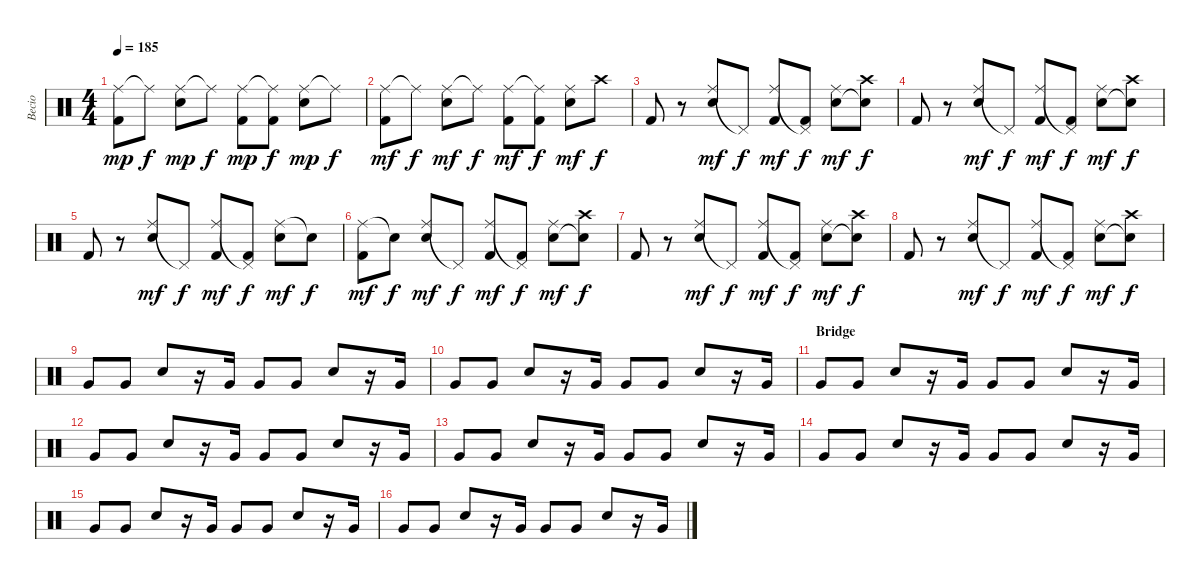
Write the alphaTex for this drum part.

\track ("Becio" "Becio") {instrument percussion}
\staff {score}
\articulation defaults
\ts (4 4)
\tempo 185
\clef neutral
\ks c
("Ride (middle)" "Kick (hit) 2").8{dy mp} "Ride (middle)"{t}.8{dy f} ("Ride (middle)" "Electric Snare (hit)").8{dy mp} "Ride (middle)"{t}.8{dy f} ("Ride (middle)" "Kick (hit) 2").8{dy mp} ("Ride (middle)"{t} "Kick (hit) 2").8{dy f} ("Ride (middle)" "Electric Snare (hit)").8{dy mp} "Ride (middle)"{t}.8{dy f} |
("Ride (middle)" "Kick (hit) 2").8{dy mf} "Ride (middle)"{t}.8{dy f} ("Ride (middle)" "Electric Snare (hit)").8{dy mf} "Ride (middle)"{t}.8{dy f} ("Ride (middle)" "Kick (hit) 2").8{dy mf} ("Ride (middle)"{t} "Kick (hit) 2").8{dy f} ("Ride (middle)" "Electric Snare (hit)").8{dy mf} "Crash high (hit)".8{dy f} |
"Kick (hit) 2".8 r.8 ("Ride (middle)" "Electric Snare (hit)").8{dy mf} "Pedal Hi-Hat (hit)"{t}.8{dy f} ("Ride (middle)" "Kick (hit) 2").8{dy mf} ("Pedal Hi-Hat (hit)"{t} "Kick (hit) 2").8{dy f} ("Ride (middle)" "Electric Snare (hit)").8{dy mf} ("Crash high (hit)" "Snare (hit)"{t}).8{dy f} |
"Kick (hit) 2".8 r.8 ("Ride (middle)" "Electric Snare (hit)").8{dy mf} "Pedal Hi-Hat (hit)"{t}.8{dy f} ("Ride (middle)" "Kick (hit) 2").8{dy mf} ("Pedal Hi-Hat (hit)"{t} "Kick (hit) 2").8{dy f} ("Ride (middle)" "Electric Snare (hit)").8{dy mf} ("Crash high (hit)" "Snare (hit)"{t}).8{dy f} |
"Kick (hit) 2".8 r.8 ("Ride (middle)" "Electric Snare (hit)").8{dy mf} "Pedal Hi-Hat (hit)"{t}.8{dy f} ("Ride (middle)" "Kick (hit) 2").8{dy mf} ("Pedal Hi-Hat (hit)"{t} "Kick (hit) 2").8{dy f} ("Ride (middle)" "Electric Snare (hit)").8{dy mf} "Snare (hit)"{t}.8{dy f} |
("Ride (middle)" "Kick (hit) 2").8{dy mf} "Snare (hit)"{t}.8{dy f} ("Ride (middle)" "Electric Snare (hit)").8{dy mf} "Pedal Hi-Hat (hit)"{t}.8{dy f} ("Ride (middle)" "Kick (hit) 2").8{dy mf} ("Pedal Hi-Hat (hit)"{t} "Kick (hit) 2").8{dy f} ("Ride (middle)" "Electric Snare (hit)").8{dy mf} ("Crash high (hit)" "Snare (hit)"{t}).8{dy f} |
"Kick (hit) 2".8 r.8 ("Ride (middle)" "Electric Snare (hit)").8{dy mf} "Pedal Hi-Hat (hit)"{t}.8{dy f} ("Ride (middle)" "Kick (hit) 2").8{dy mf} ("Pedal Hi-Hat (hit)"{t} "Kick (hit) 2").8{dy f} ("Ride (middle)" "Electric Snare (hit)").8{dy mf} ("Crash high (hit)" "Snare (hit)"{t}).8{dy f} |
"Kick (hit) 2".8 r.8 ("Ride (middle)" "Electric Snare (hit)").8{dy mf} "Pedal Hi-Hat (hit)"{t}.8{dy f} ("Ride (middle)" "Kick (hit) 2").8{dy mf} ("Pedal Hi-Hat (hit)"{t} "Kick (hit) 2").8{dy f} ("Ride (middle)" "Electric Snare (hit)").8{dy mf} ("Crash high (hit)" "Snare (hit)"{t}).8{dy f} |
"Very Low Tom (hit)".8 "Very Low Tom (hit)".8 "Electric Snare (hit)".8 r.16 "Very Low Tom (hit)".16 "Very Low Tom (hit)".8 "Very Low Tom (hit)".8 "Electric Snare (hit)".8 r.16 "Very Low Tom (hit)".16 |
"Very Low Tom (hit)".8 "Very Low Tom (hit)".8 "Electric Snare (hit)".8 r.16 "Very Low Tom (hit)".16 "Very Low Tom (hit)".8 "Very Low Tom (hit)".8 "Electric Snare (hit)".8 r.16 "Very Low Tom (hit)".16 |
\section ("" "Bridge")
"Very Low Tom (hit)".8 "Very Low Tom (hit)".8 "Electric Snare (hit)".8 r.16 "Very Low Tom (hit)".16 "Very Low Tom (hit)".8 "Very Low Tom (hit)".8 "Electric Snare (hit)".8 r.16 "Very Low Tom (hit)".16 |
"Very Low Tom (hit)".8 "Very Low Tom (hit)".8 "Electric Snare (hit)".8 r.16 "Very Low Tom (hit)".16 "Very Low Tom (hit)".8 "Very Low Tom (hit)".8 "Electric Snare (hit)".8 r.16 "Very Low Tom (hit)".16 |
"Very Low Tom (hit)".8 "Very Low Tom (hit)".8 "Electric Snare (hit)".8 r.16 "Very Low Tom (hit)".16 "Very Low Tom (hit)".8 "Very Low Tom (hit)".8 "Electric Snare (hit)".8 r.16 "Very Low Tom (hit)".16 |
"Very Low Tom (hit)".8 "Very Low Tom (hit)".8 "Electric Snare (hit)".8 r.16 "Very Low Tom (hit)".16 "Very Low Tom (hit)".8 "Very Low Tom (hit)".8 "Electric Snare (hit)".8 r.16 "Very Low Tom (hit)".16 |
"Very Low Tom (hit)".8 "Very Low Tom (hit)".8 "Electric Snare (hit)".8 r.16 "Very Low Tom (hit)".16 "Very Low Tom (hit)".8 "Very Low Tom (hit)".8 "Electric Snare (hit)".8 r.16 "Very Low Tom (hit)".16 |
"Very Low Tom (hit)".8 "Very Low Tom (hit)".8 "Electric Snare (hit)".8 r.16 "Very Low Tom (hit)".16 "Very Low Tom (hit)".8 "Very Low Tom (hit)".8 "Electric Snare (hit)".8 r.16 "Very Low Tom (hit)".16
